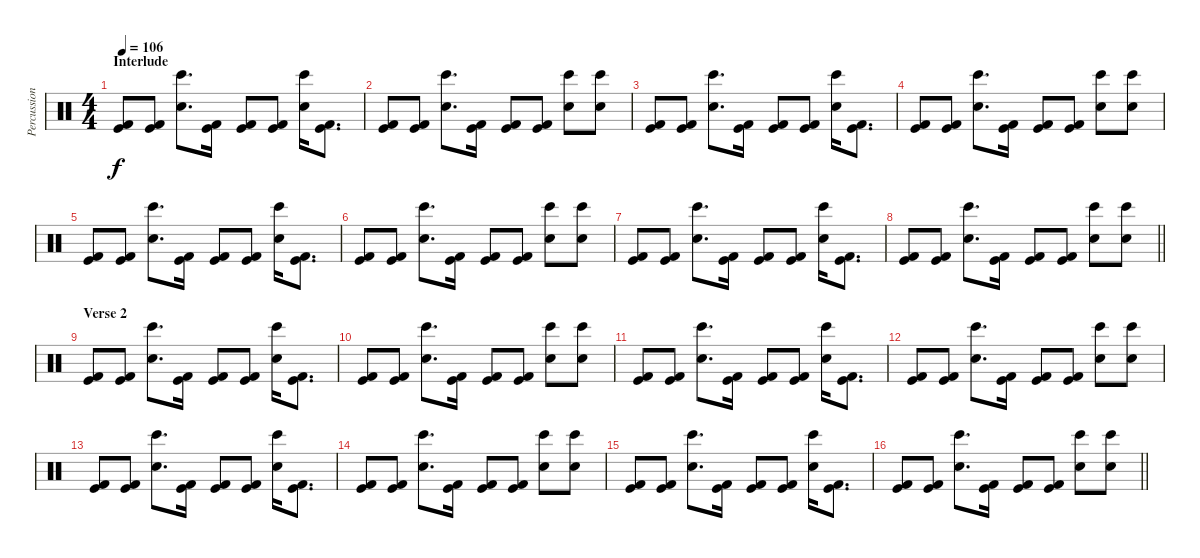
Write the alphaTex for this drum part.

\track ("Percussion" "Percussion") {instrument percussion}
\staff {score}
\articulation defaults
\ts (4 4)
\section ("" "Interlude")
\tempo 106
\clef neutral
\ks c
("Kick (hit)" "Kick (hit) 2").8{dy f} ("Kick (hit)" "Kick (hit) 2").8 ("Bongo High (hit)" "Hand Clap (hit)").8{d} ("Kick (hit)" "Kick (hit) 2").16 ("Kick (hit)" "Kick (hit) 2").8 ("Kick (hit)" "Kick (hit) 2").8 ("Bongo High (hit)" "Hand Clap (hit)").16 ("Kick (hit)" "Kick (hit) 2").8{d} |
("Kick (hit)" "Kick (hit) 2").8 ("Kick (hit)" "Kick (hit) 2").8 ("Bongo High (hit)" "Hand Clap (hit)").8{d} ("Kick (hit)" "Kick (hit) 2").16 ("Kick (hit)" "Kick (hit) 2").8 ("Kick (hit)" "Kick (hit) 2").8 ("Bongo High (hit)" "Hand Clap (hit)").8 ("Bongo High (hit)" "Hand Clap (hit)").8 |
("Kick (hit)" "Kick (hit) 2").8 ("Kick (hit)" "Kick (hit) 2").8 ("Bongo High (hit)" "Hand Clap (hit)").8{d} ("Kick (hit)" "Kick (hit) 2").16 ("Kick (hit)" "Kick (hit) 2").8 ("Kick (hit)" "Kick (hit) 2").8 ("Bongo High (hit)" "Hand Clap (hit)").16 ("Kick (hit)" "Kick (hit) 2").8{d} |
("Kick (hit)" "Kick (hit) 2").8 ("Kick (hit)" "Kick (hit) 2").8 ("Bongo High (hit)" "Hand Clap (hit)").8{d} ("Kick (hit)" "Kick (hit) 2").16 ("Kick (hit)" "Kick (hit) 2").8 ("Kick (hit)" "Kick (hit) 2").8 ("Bongo High (hit)" "Hand Clap (hit)").8 ("Bongo High (hit)" "Hand Clap (hit)").8 |
("Kick (hit)" "Kick (hit) 2").8 ("Kick (hit)" "Kick (hit) 2").8 ("Bongo High (hit)" "Hand Clap (hit)").8{d} ("Kick (hit)" "Kick (hit) 2").16 ("Kick (hit)" "Kick (hit) 2").8 ("Kick (hit)" "Kick (hit) 2").8 ("Bongo High (hit)" "Hand Clap (hit)").16 ("Kick (hit)" "Kick (hit) 2").8{d} |
("Kick (hit)" "Kick (hit) 2").8 ("Kick (hit)" "Kick (hit) 2").8 ("Bongo High (hit)" "Hand Clap (hit)").8{d} ("Kick (hit)" "Kick (hit) 2").16 ("Kick (hit)" "Kick (hit) 2").8 ("Kick (hit)" "Kick (hit) 2").8 ("Bongo High (hit)" "Hand Clap (hit)").8 ("Bongo High (hit)" "Hand Clap (hit)").8 |
("Kick (hit)" "Kick (hit) 2").8 ("Kick (hit)" "Kick (hit) 2").8 ("Bongo High (hit)" "Hand Clap (hit)").8{d} ("Kick (hit)" "Kick (hit) 2").16 ("Kick (hit)" "Kick (hit) 2").8 ("Kick (hit)" "Kick (hit) 2").8 ("Bongo High (hit)" "Hand Clap (hit)").16 ("Kick (hit)" "Kick (hit) 2").8{d} |
\barLineRight lightlight
("Kick (hit)" "Kick (hit) 2").8 ("Kick (hit)" "Kick (hit) 2").8 ("Bongo High (hit)" "Hand Clap (hit)").8{d} ("Kick (hit)" "Kick (hit) 2").16 ("Kick (hit)" "Kick (hit) 2").8 ("Kick (hit)" "Kick (hit) 2").8 ("Bongo High (hit)" "Hand Clap (hit)").8 ("Bongo High (hit)" "Hand Clap (hit)").8 |
\section ("" "Verse 2")
("Kick (hit)" "Kick (hit) 2").8 ("Kick (hit)" "Kick (hit) 2").8 ("Bongo High (hit)" "Hand Clap (hit)").8{d} ("Kick (hit)" "Kick (hit) 2").16 ("Kick (hit)" "Kick (hit) 2").8 ("Kick (hit)" "Kick (hit) 2").8 ("Bongo High (hit)" "Hand Clap (hit)").16 ("Kick (hit)" "Kick (hit) 2").8{d} |
("Kick (hit)" "Kick (hit) 2").8 ("Kick (hit)" "Kick (hit) 2").8 ("Bongo High (hit)" "Hand Clap (hit)").8{d} ("Kick (hit)" "Kick (hit) 2").16 ("Kick (hit)" "Kick (hit) 2").8 ("Kick (hit)" "Kick (hit) 2").8 ("Bongo High (hit)" "Hand Clap (hit)").8 ("Bongo High (hit)" "Hand Clap (hit)").8 |
("Kick (hit)" "Kick (hit) 2").8 ("Kick (hit)" "Kick (hit) 2").8 ("Bongo High (hit)" "Hand Clap (hit)").8{d} ("Kick (hit)" "Kick (hit) 2").16 ("Kick (hit)" "Kick (hit) 2").8 ("Kick (hit)" "Kick (hit) 2").8 ("Bongo High (hit)" "Hand Clap (hit)").16 ("Kick (hit)" "Kick (hit) 2").8{d} |
("Kick (hit)" "Kick (hit) 2").8 ("Kick (hit)" "Kick (hit) 2").8 ("Bongo High (hit)" "Hand Clap (hit)").8{d} ("Kick (hit)" "Kick (hit) 2").16 ("Kick (hit)" "Kick (hit) 2").8 ("Kick (hit)" "Kick (hit) 2").8 ("Bongo High (hit)" "Hand Clap (hit)").8 ("Bongo High (hit)" "Hand Clap (hit)").8 |
("Kick (hit)" "Kick (hit) 2").8 ("Kick (hit)" "Kick (hit) 2").8 ("Bongo High (hit)" "Hand Clap (hit)").8{d} ("Kick (hit)" "Kick (hit) 2").16 ("Kick (hit)" "Kick (hit) 2").8 ("Kick (hit)" "Kick (hit) 2").8 ("Bongo High (hit)" "Hand Clap (hit)").16 ("Kick (hit)" "Kick (hit) 2").8{d} |
("Kick (hit)" "Kick (hit) 2").8 ("Kick (hit)" "Kick (hit) 2").8 ("Bongo High (hit)" "Hand Clap (hit)").8{d} ("Kick (hit)" "Kick (hit) 2").16 ("Kick (hit)" "Kick (hit) 2").8 ("Kick (hit)" "Kick (hit) 2").8 ("Bongo High (hit)" "Hand Clap (hit)").8 ("Bongo High (hit)" "Hand Clap (hit)").8 |
("Kick (hit)" "Kick (hit) 2").8 ("Kick (hit)" "Kick (hit) 2").8 ("Bongo High (hit)" "Hand Clap (hit)").8{d} ("Kick (hit)" "Kick (hit) 2").16 ("Kick (hit)" "Kick (hit) 2").8 ("Kick (hit)" "Kick (hit) 2").8 ("Bongo High (hit)" "Hand Clap (hit)").16 ("Kick (hit)" "Kick (hit) 2").8{d} |
\barLineRight lightlight
("Kick (hit)" "Kick (hit) 2").8 ("Kick (hit)" "Kick (hit) 2").8 ("Bongo High (hit)" "Hand Clap (hit)").8{d} ("Kick (hit)" "Kick (hit) 2").16 ("Kick (hit)" "Kick (hit) 2").8 ("Kick (hit)" "Kick (hit) 2").8 ("Bongo High (hit)" "Hand Clap (hit)").8 ("Bongo High (hit)" "Hand Clap (hit)").8
